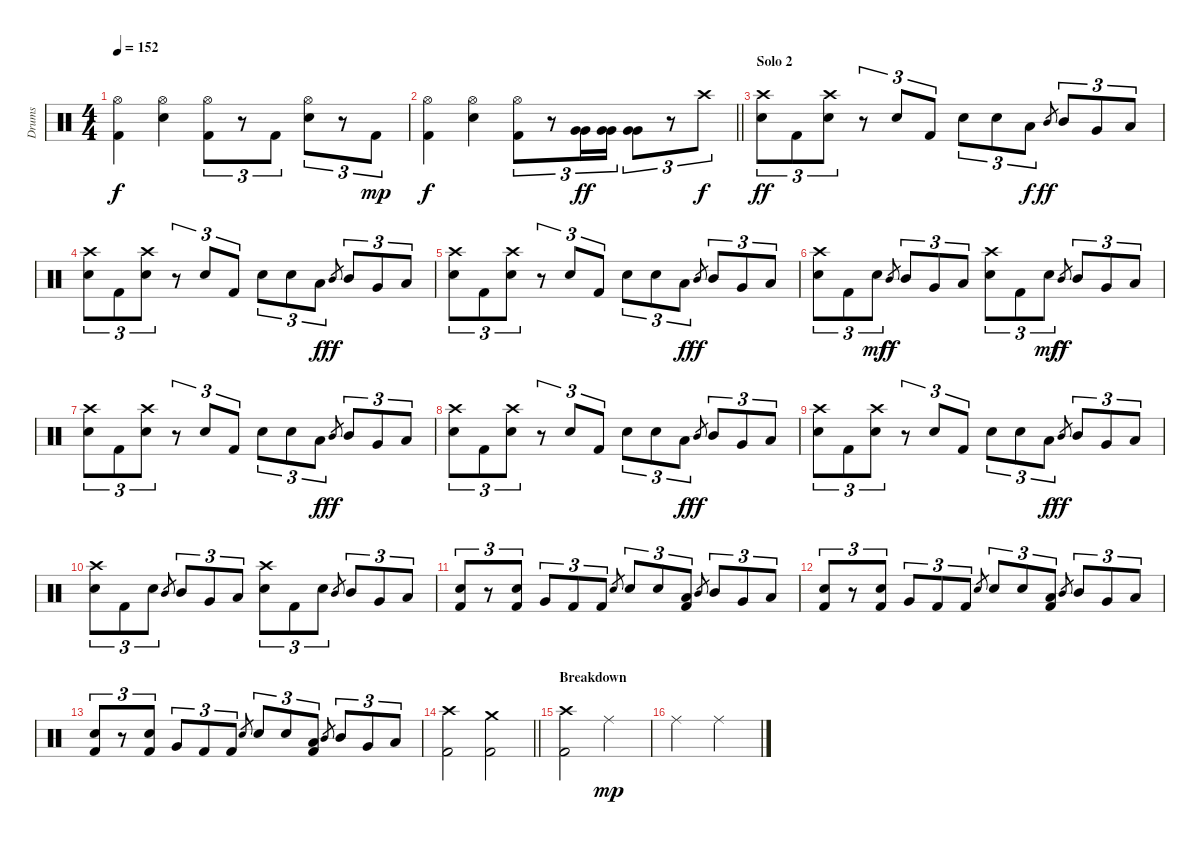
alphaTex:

\track ("Drums" "Drums") {instrument percussion}
\staff {score}
\articulation defaults
\ts (4 4)
\tempo 152
\clef neutral
\ks c
("Hi-Hat (open)" "Kick (hit) 2").4{dy f} ("Hi-Hat (open)" "Snare (hit) 2").4 ("Hi-Hat (open)" "Kick (hit) 2").8{tu (3 2)} r.8{tu (3 2)} "Kick (hit) 2".8{tu (3 2)} ("Hi-Hat (open)" "Snare (hit) 2").8{tu (3 2)} r.8{tu (3 2)} "Kick (hit) 2".8{tu (3 2) dy mp} |
\barLineRight lightlight
("Hi-Hat (open)" "Kick (hit) 2").4{dy f} ("Hi-Hat (open)" "Snare (hit) 2").4 ("Hi-Hat (open)" "Kick (hit) 2").8{tu (3 2)} r.8{tu (3 2)} ("Very Low Tom (hit)" "Very Low Tom (hit)").16{tu (3 2) dy ff} ("Very Low Tom (hit)" "Very Low Tom (hit)").16{tu (3 2)} ("Very Low Tom (hit)" "Very Low Tom (hit)").8{tu (3 2)} r.8{tu (3 2)} "Crash high (hit)".8{tu (3 2) dy f} |
\section ("" "Solo 2")
("Crash high (hit)" "Snare (hit) 2").8{tu (3 2) dy ff} "Kick (hit) 2".8{tu (3 2)} ("Crash high (hit)" "Snare (hit) 2").8{tu (3 2)} r.8{tu (3 2)} "Snare (hit) 2".8{tu (3 2)} "Kick (hit) 2".8{tu (3 2)} "Snare (hit) 2".8{tu (3 2)} "Snare (hit) 2".8{tu (3 2)} "Low Tom (hit)".8{tu (3 2) dy f} "Mid Tom (hit)".8{gr dy ff} "Mid Tom (hit)".8{tu (3 2)} "Very Low Tom (hit)".8{tu (3 2)} "Low Tom (hit)".8{tu (3 2)} |
("Crash high (hit)" "Snare (hit) 2").8{tu (3 2)} "Kick (hit) 2".8{tu (3 2)} ("Crash high (hit)" "Snare (hit) 2").8{tu (3 2)} r.8{tu (3 2)} "Snare (hit) 2".8{tu (3 2)} "Kick (hit) 2".8{tu (3 2)} "Snare (hit) 2".8{tu (3 2)} "Snare (hit) 2".8{tu (3 2)} "Low Tom (hit)".8{tu (3 2) dy f} "Mid Tom (hit)".8{gr dy ff} "Mid Tom (hit)".8{tu (3 2)} "Very Low Tom (hit)".8{tu (3 2)} "Low Tom (hit)".8{tu (3 2)} |
("Crash high (hit)" "Snare (hit) 2").8{tu (3 2)} "Kick (hit) 2".8{tu (3 2)} ("Crash high (hit)" "Snare (hit) 2").8{tu (3 2)} r.8{tu (3 2)} "Snare (hit) 2".8{tu (3 2)} "Kick (hit) 2".8{tu (3 2)} "Snare (hit) 2".8{tu (3 2)} "Snare (hit) 2".8{tu (3 2)} "Low Tom (hit)".8{tu (3 2) dy f} "Mid Tom (hit)".8{gr dy ff} "Mid Tom (hit)".8{tu (3 2)} "Very Low Tom (hit)".8{tu (3 2)} "Low Tom (hit)".8{tu (3 2)} |
("Crash high (hit)" "Snare (hit) 2").8{tu (3 2)} "Kick (hit) 2".8{tu (3 2)} "Snare (hit) 2".8{tu (3 2) dy mf} "Mid Tom (hit)".8{gr dy ff} "Mid Tom (hit)".8{tu (3 2)} "Very Low Tom (hit)".8{tu (3 2)} "Low Tom (hit)".8{tu (3 2)} ("Crash high (hit)" "Snare (hit) 2").8{tu (3 2)} "Kick (hit) 2".8{tu (3 2)} "Snare (hit) 2".8{tu (3 2) dy mf} "Mid Tom (hit)".8{gr dy ff} "Mid Tom (hit)".8{tu (3 2)} "Very Low Tom (hit)".8{tu (3 2)} "Low Tom (hit)".8{tu (3 2)} |
("Crash high (hit)" "Snare (hit) 2").8{tu (3 2)} "Kick (hit) 2".8{tu (3 2)} ("Crash high (hit)" "Snare (hit) 2").8{tu (3 2)} r.8{tu (3 2)} "Snare (hit) 2".8{tu (3 2)} "Kick (hit) 2".8{tu (3 2)} "Snare (hit) 2".8{tu (3 2)} "Snare (hit) 2".8{tu (3 2)} "Low Tom (hit)".8{tu (3 2) dy f} "Mid Tom (hit)".8{gr dy ff} "Mid Tom (hit)".8{tu (3 2)} "Very Low Tom (hit)".8{tu (3 2)} "Low Tom (hit)".8{tu (3 2)} |
("Crash high (hit)" "Snare (hit) 2").8{tu (3 2)} "Kick (hit) 2".8{tu (3 2)} ("Crash high (hit)" "Snare (hit) 2").8{tu (3 2)} r.8{tu (3 2)} "Snare (hit) 2".8{tu (3 2)} "Kick (hit) 2".8{tu (3 2)} "Snare (hit) 2".8{tu (3 2)} "Snare (hit) 2".8{tu (3 2)} "Low Tom (hit)".8{tu (3 2) dy f} "Mid Tom (hit)".8{gr dy ff} "Mid Tom (hit)".8{tu (3 2)} "Very Low Tom (hit)".8{tu (3 2)} "Low Tom (hit)".8{tu (3 2)} |
("Crash high (hit)" "Snare (hit) 2").8{tu (3 2)} "Kick (hit) 2".8{tu (3 2)} ("Crash high (hit)" "Snare (hit) 2").8{tu (3 2)} r.8{tu (3 2)} "Snare (hit) 2".8{tu (3 2)} "Kick (hit) 2".8{tu (3 2)} "Snare (hit) 2".8{tu (3 2)} "Snare (hit) 2".8{tu (3 2)} "Low Tom (hit)".8{tu (3 2) dy f} "Mid Tom (hit)".8{gr dy ff} "Mid Tom (hit)".8{tu (3 2)} "Very Low Tom (hit)".8{tu (3 2)} "Low Tom (hit)".8{tu (3 2)} |
("Crash high (hit)" "Snare (hit) 2").8{tu (3 2)} "Kick (hit) 2".8{tu (3 2)} "Snare (hit) 2".8{tu (3 2)} "Mid Tom (hit)".8{gr} "Mid Tom (hit)".8{tu (3 2)} "Very Low Tom (hit)".8{tu (3 2)} "Low Tom (hit)".8{tu (3 2)} ("Crash high (hit)" "Snare (hit) 2").8{tu (3 2)} "Kick (hit) 2".8{tu (3 2)} "Snare (hit) 2".8{tu (3 2)} "Mid Tom (hit)".8{gr} "Mid Tom (hit)".8{tu (3 2)} "Very Low Tom (hit)".8{tu (3 2)} "Low Tom (hit)".8{tu (3 2)} |
("Snare (hit) 2" "Kick (hit) 2").8{tu (3 2)} r.8{tu (3 2)} ("Snare (hit) 2" "Kick (hit) 2").8{tu (3 2)} "Very Low Tom (hit)".8{tu (3 2)} "Kick (hit) 2".8{tu (3 2)} "Kick (hit) 2".8{tu (3 2)} "Snare (hit) 2".8{gr} "Snare (hit) 2".8{tu (3 2)} "Snare (hit) 2".8{tu (3 2)} ("Low Tom (hit)" "Kick (hit) 2").8{tu (3 2)} "Mid Tom (hit)".8{gr} "Mid Tom (hit)".8{tu (3 2)} "Very Low Tom (hit)".8{tu (3 2)} "Low Tom (hit)".8{tu (3 2)} |
("Snare (hit) 2" "Kick (hit) 2").8{tu (3 2)} r.8{tu (3 2)} ("Snare (hit) 2" "Kick (hit) 2").8{tu (3 2)} "Very Low Tom (hit)".8{tu (3 2)} "Kick (hit) 2".8{tu (3 2)} "Kick (hit) 2".8{tu (3 2)} "Snare (hit) 2".8{gr} "Snare (hit) 2".8{tu (3 2)} "Snare (hit) 2".8{tu (3 2)} ("Low Tom (hit)" "Kick (hit) 2").8{tu (3 2)} "Mid Tom (hit)".8{gr} "Mid Tom (hit)".8{tu (3 2)} "Very Low Tom (hit)".8{tu (3 2)} "Low Tom (hit)".8{tu (3 2)} |
("Snare (hit) 2" "Kick (hit) 2").8{tu (3 2)} r.8{tu (3 2)} ("Snare (hit) 2" "Kick (hit) 2").8{tu (3 2)} "Very Low Tom (hit)".8{tu (3 2)} "Kick (hit) 2".8{tu (3 2)} "Kick (hit) 2".8{tu (3 2)} "Snare (hit) 2".8{gr} "Snare (hit) 2".8{tu (3 2)} "Snare (hit) 2".8{tu (3 2)} ("Low Tom (hit)" "Kick (hit) 2").8{tu (3 2)} "Mid Tom (hit)".8{gr} "Mid Tom (hit)".8{tu (3 2)} "Very Low Tom (hit)".8{tu (3 2)} "Low Tom (hit)".8{tu (3 2)} |
\barLineRight lightlight
("Crash high (hit)" "Kick (hit) 2").2 ("Crash medium (hit)" "Kick (hit) 2").2 |
\section ("" "Breakdown")
("Crash high (hit)" "Kick (hit) 2").2 "Ride (middle)".2{dy mp} |
"Ride (middle)".2 "Ride (middle)".2
